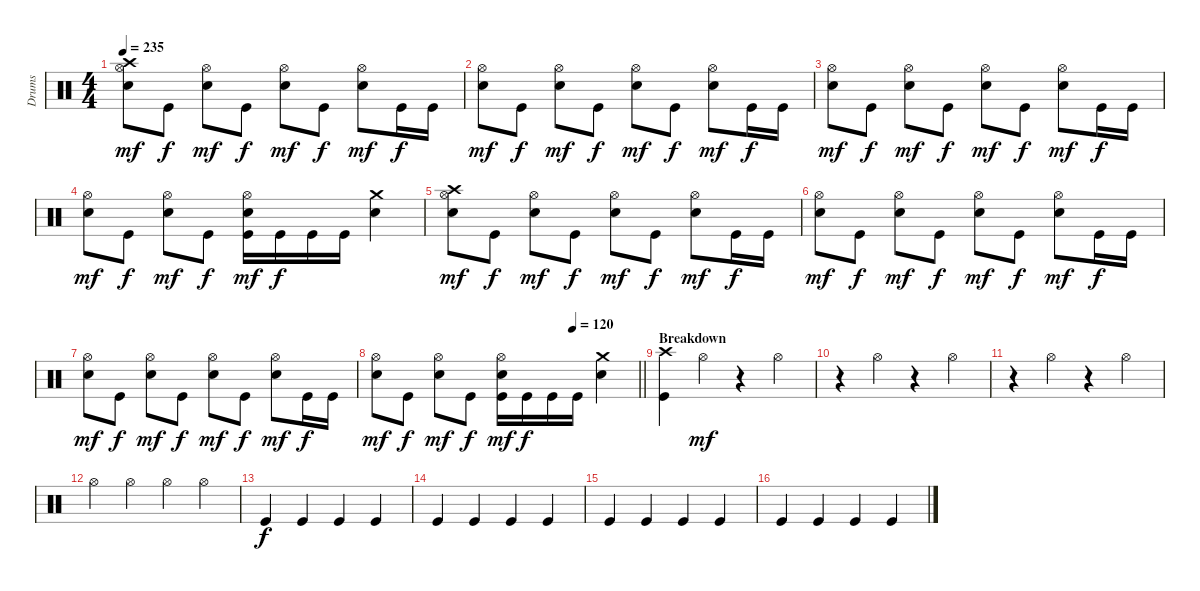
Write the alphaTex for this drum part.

\track ("Drums" "Drums") {instrument percussion}
\staff {score}
\articulation defaults
\ts (4 4)
\tempo 235
\clef neutral
\ks c
("Crash high (hit)" "Hi-Hat (open)" "Electric Snare (hit)").8{dy mf} "Kick (hit)".8{dy f} ("Hi-Hat (open)" "Electric Snare (hit)").8{dy mf} "Kick (hit)".8{dy f} ("Hi-Hat (open)" "Electric Snare (hit)").8{dy mf} "Kick (hit)".8{dy f} ("Hi-Hat (open)" "Electric Snare (hit)").8{dy mf} "Kick (hit)".16{dy f} "Kick (hit)".16 |
("Hi-Hat (open)" "Electric Snare (hit)").8{dy mf} "Kick (hit)".8{dy f} ("Hi-Hat (open)" "Electric Snare (hit)").8{dy mf} "Kick (hit)".8{dy f} ("Hi-Hat (open)" "Electric Snare (hit)").8{dy mf} "Kick (hit)".8{dy f} ("Hi-Hat (open)" "Electric Snare (hit)").8{dy mf} "Kick (hit)".16{dy f} "Kick (hit)".16 |
("Hi-Hat (open)" "Electric Snare (hit)").8{dy mf} "Kick (hit)".8{dy f} ("Hi-Hat (open)" "Electric Snare (hit)").8{dy mf} "Kick (hit)".8{dy f} ("Hi-Hat (open)" "Electric Snare (hit)").8{dy mf} "Kick (hit)".8{dy f} ("Hi-Hat (open)" "Electric Snare (hit)").8{dy mf} "Kick (hit)".16{dy f} "Kick (hit)".16 |
("Hi-Hat (open)" "Electric Snare (hit)").8{dy mf} "Kick (hit)".8{dy f} ("Hi-Hat (open)" "Electric Snare (hit)").8{dy mf} "Kick (hit)".8{dy f} ("Hi-Hat (open)" "Electric Snare (hit)" "Kick (hit)").16{dy mf} "Kick (hit)".16{dy f} "Kick (hit)".16 "Kick (hit)".16 ("Crash medium (hit)" "Electric Snare (hit)").4 |
("Crash high (hit)" "Hi-Hat (open)" "Electric Snare (hit)").8{dy mf} "Kick (hit)".8{dy f} ("Hi-Hat (open)" "Electric Snare (hit)").8{dy mf} "Kick (hit)".8{dy f} ("Hi-Hat (open)" "Electric Snare (hit)").8{dy mf} "Kick (hit)".8{dy f} ("Hi-Hat (open)" "Electric Snare (hit)").8{dy mf} "Kick (hit)".16{dy f} "Kick (hit)".16 |
("Hi-Hat (open)" "Electric Snare (hit)").8{dy mf} "Kick (hit)".8{dy f} ("Hi-Hat (open)" "Electric Snare (hit)").8{dy mf} "Kick (hit)".8{dy f} ("Hi-Hat (open)" "Electric Snare (hit)").8{dy mf} "Kick (hit)".8{dy f} ("Hi-Hat (open)" "Electric Snare (hit)").8{dy mf} "Kick (hit)".16{dy f} "Kick (hit)".16 |
("Hi-Hat (open)" "Electric Snare (hit)").8{dy mf} "Kick (hit)".8{dy f} ("Hi-Hat (open)" "Electric Snare (hit)").8{dy mf} "Kick (hit)".8{dy f} ("Hi-Hat (open)" "Electric Snare (hit)").8{dy mf} "Kick (hit)".8{dy f} ("Hi-Hat (open)" "Electric Snare (hit)").8{dy mf} "Kick (hit)".16{dy f} "Kick (hit)".16 |
\tempo (120 0.75)
\barLineRight lightlight
("Hi-Hat (open)" "Electric Snare (hit)").8{dy mf} "Kick (hit)".8{dy f} ("Hi-Hat (open)" "Electric Snare (hit)").8{dy mf} "Kick (hit)".8{dy f} ("Hi-Hat (open)" "Electric Snare (hit)" "Kick (hit)").16{dy mf} "Kick (hit)".16{dy f} "Kick (hit)".16 "Kick (hit)".16 ("Crash medium (hit)" "Electric Snare (hit)").4 |
\section ("" "Breakdown")
("Crash high (hit)" "Kick (hit)").4 "Hi-Hat (open)".4{dy mf} r.4 "Hi-Hat (open)".4 |
r.4 "Hi-Hat (open)".4 r.4 "Hi-Hat (open)".4 |
r.4 "Hi-Hat (open)".4 r.4 "Hi-Hat (open)".4 |
"Hi-Hat (open)".4 "Hi-Hat (open)".4 "Hi-Hat (open)".4 "Hi-Hat (open)".4 |
"Kick (hit)".4{dy f} "Kick (hit)".4 "Kick (hit)".4 "Kick (hit)".4 |
"Kick (hit)".4 "Kick (hit)".4 "Kick (hit)".4 "Kick (hit)".4 |
"Kick (hit)".4 "Kick (hit)".4 "Kick (hit)".4 "Kick (hit)".4 |
"Kick (hit)".4 "Kick (hit)".4 "Kick (hit)".4 "Kick (hit)".4
